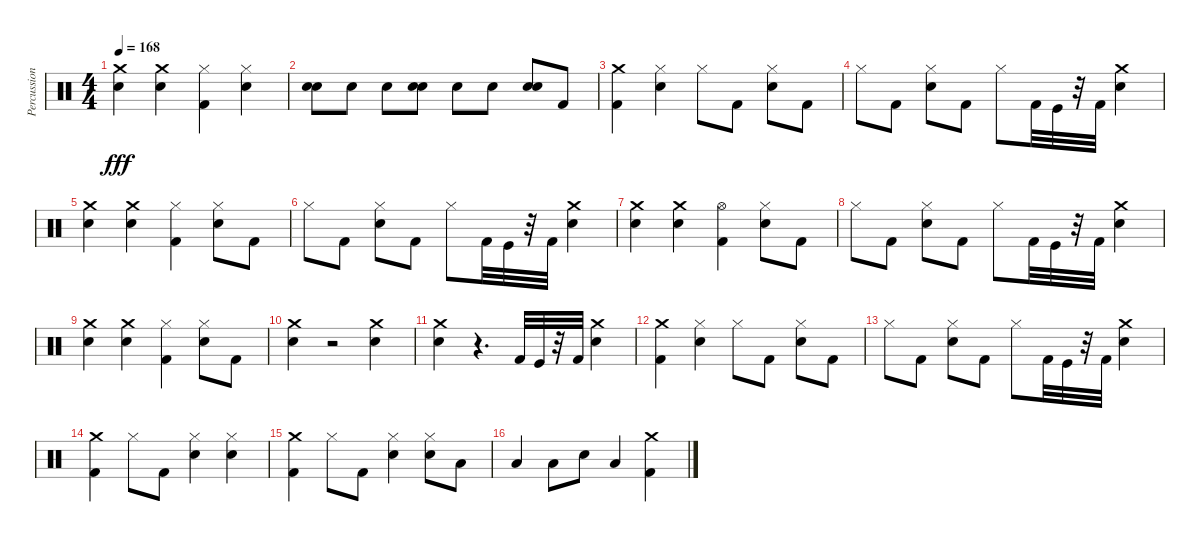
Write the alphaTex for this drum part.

\track ("Percussion" "Percussion") {instrument percussion}
\staff {score}
\articulation defaults
\ts (4 4)
\tempo 168
\clef neutral
\ks c
("Snare (hit) 2" "Crash medium (hit)").4{dy fff} ("Snare (hit) 2" "Crash medium (hit)").4 ("Kick (hit) 2" "Hi-Hat (closed)").4 ("Hi-Hat (closed)" "Snare (hit) 2").4 |
("Snare (hit) 2" "Snare (hit) 2").8 "Snare (hit) 2".8 "Snare (hit) 2".8 ("Snare (hit) 2" "Snare (hit) 2").8 "Snare (hit) 2".8 "Snare (hit) 2".8 ("Snare (hit) 2" "Snare (hit) 2").8 "Kick (hit) 2".8 |
("Kick (hit) 2" "Crash medium (hit)").4 ("Hi-Hat (closed)" "Snare (hit) 2").4 "Hi-Hat (closed)".8 "Kick (hit) 2".8 ("Snare (hit) 2" "Hi-Hat (closed)").8 "Kick (hit) 2".8 |
"Hi-Hat (closed)".8 "Kick (hit) 2".8 ("Snare (hit) 2" "Hi-Hat (closed)").8 "Kick (hit) 2".8 "Hi-Hat (closed)".8 "Kick (hit) 2".32 "Kick (hit)".32 r.32 "Kick (hit) 2".32 ("Crash medium (hit)" "Snare (hit) 2").4 |
("Crash medium (hit)" "Snare (hit) 2").4 ("Crash medium (hit)" "Snare (hit) 2").4 ("Hi-Hat (closed)" "Kick (hit) 2").4 ("Snare (hit) 2" "Hi-Hat (closed)").8 "Kick (hit) 2".8 |
"Hi-Hat (closed)".8 "Kick (hit) 2".8 ("Snare (hit) 2" "Hi-Hat (closed)").8 "Kick (hit) 2".8 "Hi-Hat (closed)".8 "Kick (hit) 2".32 "Kick (hit)".32 r.32 "Kick (hit) 2".32 ("Crash medium (hit)" "Snare (hit) 2").4 |
("Crash medium (hit)" "Snare (hit) 2").4 ("Crash medium (hit)" "Snare (hit) 2").4 ("Hi-Hat (open)" "Kick (hit) 2").4 ("Snare (hit) 2" "Hi-Hat (closed)").8 "Kick (hit) 2".8 |
"Hi-Hat (closed)".8 "Kick (hit) 2".8 ("Snare (hit) 2" "Hi-Hat (closed)").8 "Kick (hit) 2".8 "Hi-Hat (closed)".8 "Kick (hit) 2".32 "Kick (hit)".32 r.32 "Kick (hit) 2".32 ("Crash medium (hit)" "Snare (hit) 2").4 |
("Crash medium (hit)" "Snare (hit) 2").4 ("Crash medium (hit)" "Snare (hit) 2").4 ("Hi-Hat (closed)" "Kick (hit) 2").4 ("Snare (hit) 2" "Hi-Hat (closed)").8 "Kick (hit) 2".8 |
("Snare (hit) 2" "Crash medium (hit)").4 r.2 ("Crash medium (hit)" "Snare (hit) 2").4 |
("Snare (hit) 2" "Crash medium (hit)").4 r.4{d} "Kick (hit) 2".32 "Kick (hit)".32 r.32 "Kick (hit) 2".32 ("Crash medium (hit)" "Snare (hit) 2").4 |
("Kick (hit) 2" "Crash medium (hit)").4 ("Hi-Hat (closed)" "Snare (hit) 2").4 "Hi-Hat (closed)".8 "Kick (hit) 2".8 ("Snare (hit) 2" "Hi-Hat (closed)").8 "Kick (hit) 2".8 |
"Hi-Hat (closed)".8 "Kick (hit) 2".8 ("Snare (hit) 2" "Hi-Hat (closed)").8 "Kick (hit) 2".8 "Hi-Hat (closed)".8 "Kick (hit) 2".32 "Kick (hit)".32 r.32 "Kick (hit) 2".32 ("Crash medium (hit)" "Snare (hit) 2").4 |
("Kick (hit) 2" "Crash medium (hit)").4 "Hi-Hat (closed)".8 "Kick (hit) 2".8 ("Snare (hit) 2" "Hi-Hat (closed)").4 ("Hi-Hat (closed)" "Snare (hit) 2").4 |
("Kick (hit) 2" "Crash medium (hit)").4 "Hi-Hat (closed)".8 "Kick (hit) 2".8 ("Snare (hit) 2" "Hi-Hat (closed)").4 ("Hi-Hat (closed)" "Snare (hit) 2").8 "Low Tom (hit)".8 |
"Low Tom (hit)".4 "Low Tom (hit)".8 "Snare (hit) 2".8 "Low Tom (hit)".4 ("Kick (hit) 2" "Crash medium (hit)").4
